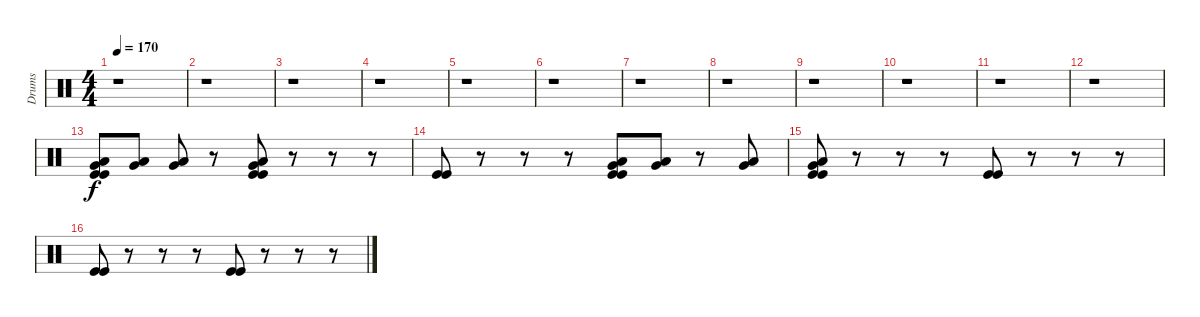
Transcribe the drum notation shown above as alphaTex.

\track ("Drums" "Drums") {instrument percussion}
\staff {score}
\articulation defaults
\ts (4 4)
\tempo 170
\clef neutral
\ks c
r.1{dy f} |
r.1 |
r.1 |
r.1 |
r.1 |
r.1 |
r.1 |
r.1 |
r.1 |
r.1 |
r.1 |
r.1 |
("Very Low Tom (hit)" "Low Floor Tom (hit)" "Kick (hit)" "Kick (hit)").8 ("Very Low Tom (hit)" "Low Floor Tom (hit)").8 ("Very Low Tom (hit)" "Low Floor Tom (hit)").8 r.8 ("Very Low Tom (hit)" "Low Floor Tom (hit)" "Kick (hit)" "Kick (hit)").8 r.8 r.8 r.8 |
("Kick (hit)" "Kick (hit)").8 r.8 r.8 r.8 ("Low Floor Tom (hit)" "Very Low Tom (hit)" "Kick (hit)" "Kick (hit)").8 ("Low Floor Tom (hit)" "Very Low Tom (hit)").8 r.8 ("Low Floor Tom (hit)" "Very Low Tom (hit)").8 |
("Low Floor Tom (hit)" "Very Low Tom (hit)" "Kick (hit)" "Kick (hit)").8 r.8 r.8 r.8 ("Kick (hit)" "Kick (hit)").8 r.8 r.8 r.8 |
("Kick (hit)" "Kick (hit)").8 r.8 r.8 r.8 ("Kick (hit)" "Kick (hit)").8 r.8 r.8 r.8
